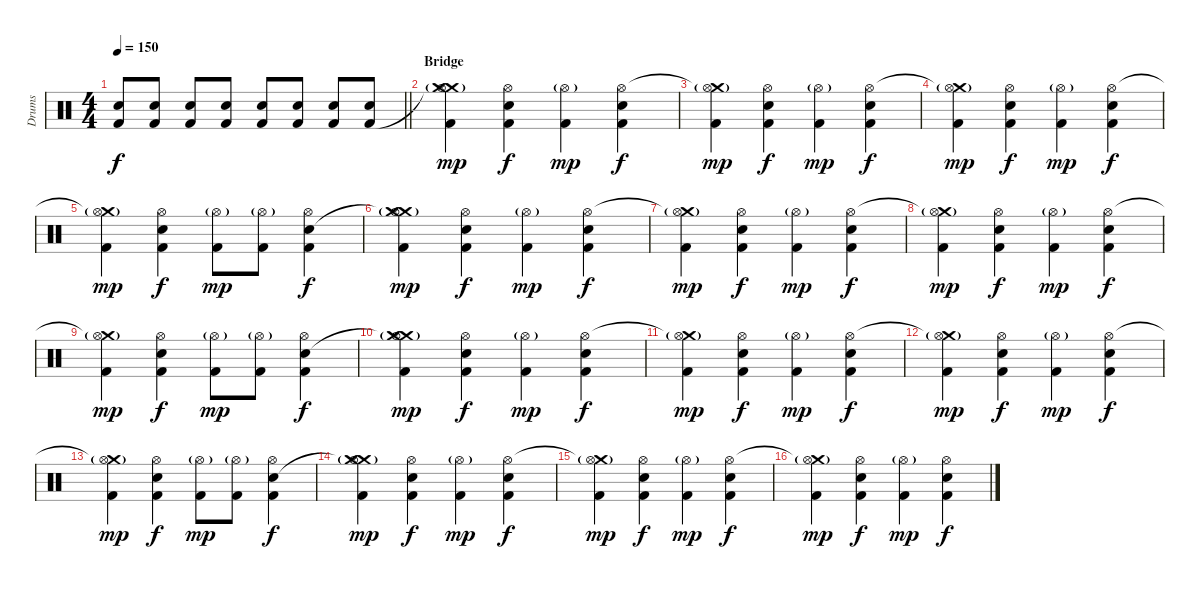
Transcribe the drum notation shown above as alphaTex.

\track ("Drums" "Drums") {instrument percussion}
\staff {score}
\articulation defaults
\ts (4 4)
\tempo 150
\clef neutral
\barLineRight lightlight
\ks c
("Electric Snare (hit)" "Kick (hit) 2").8{dy f} ("Electric Snare (hit)" "Kick (hit) 2").8 ("Electric Snare (hit)" "Kick (hit) 2").8 ("Electric Snare (hit)" "Kick (hit) 2").8 ("Electric Snare (hit)" "Kick (hit) 2").8 ("Electric Snare (hit)" "Kick (hit) 2").8 ("Electric Snare (hit)" "Kick (hit) 2").8 ("Electric Snare (hit)" "Kick (hit) 2").8 |
\section ("" "Bridge")
("Crash medium (hit)" "Crash medium (hit)"{t} "Hi-Hat (open)"{g} "Kick (hit) 2").4{dy mp} ("Hi-Hat (open)" "Electric Snare (hit)" "Kick (hit) 2").4{dy f} ("Hi-Hat (open)"{g} "Kick (hit) 2").4{dy mp} ("Hi-Hat (open)" "Electric Snare (hit)" "Kick (hit) 2").4{dy f} |
("Crash medium (hit)"{t} "Hi-Hat (open)"{g} "Kick (hit) 2").4{dy mp} ("Hi-Hat (open)" "Electric Snare (hit)" "Kick (hit) 2").4{dy f} ("Hi-Hat (open)"{g} "Kick (hit) 2").4{dy mp} ("Hi-Hat (open)" "Electric Snare (hit)" "Kick (hit) 2").4{dy f} |
("Crash medium (hit)"{t} "Hi-Hat (open)"{g} "Kick (hit) 2").4{dy mp} ("Hi-Hat (open)" "Electric Snare (hit)" "Kick (hit) 2").4{dy f} ("Hi-Hat (open)"{g} "Kick (hit) 2").4{dy mp} ("Hi-Hat (open)" "Electric Snare (hit)" "Kick (hit) 2").4{dy f} |
("Crash medium (hit)"{t} "Hi-Hat (open)"{g} "Kick (hit) 2").4{dy mp} ("Hi-Hat (open)" "Electric Snare (hit)" "Kick (hit) 2").4{dy f} ("Hi-Hat (open)"{g} "Kick (hit) 2").8{dy mp} ("Hi-Hat (open)"{g} "Kick (hit) 2").8 ("Hi-Hat (open)" "Electric Snare (hit)" "Kick (hit) 2").4{dy f} |
("Crash medium (hit)" "Crash medium (hit)"{t} "Hi-Hat (open)"{g} "Kick (hit) 2").4{dy mp} ("Hi-Hat (open)" "Electric Snare (hit)" "Kick (hit) 2").4{dy f} ("Hi-Hat (open)"{g} "Kick (hit) 2").4{dy mp} ("Hi-Hat (open)" "Electric Snare (hit)" "Kick (hit) 2").4{dy f} |
("Crash medium (hit)"{t} "Hi-Hat (open)"{g} "Kick (hit) 2").4{dy mp} ("Hi-Hat (open)" "Electric Snare (hit)" "Kick (hit) 2").4{dy f} ("Hi-Hat (open)"{g} "Kick (hit) 2").4{dy mp} ("Hi-Hat (open)" "Electric Snare (hit)" "Kick (hit) 2").4{dy f} |
("Crash medium (hit)"{t} "Hi-Hat (open)"{g} "Kick (hit) 2").4{dy mp} ("Hi-Hat (open)" "Electric Snare (hit)" "Kick (hit) 2").4{dy f} ("Hi-Hat (open)"{g} "Kick (hit) 2").4{dy mp} ("Hi-Hat (open)" "Electric Snare (hit)" "Kick (hit) 2").4{dy f} |
("Crash medium (hit)"{t} "Hi-Hat (open)"{g} "Kick (hit) 2").4{dy mp} ("Hi-Hat (open)" "Electric Snare (hit)" "Kick (hit) 2").4{dy f} ("Hi-Hat (open)"{g} "Kick (hit) 2").8{dy mp} ("Hi-Hat (open)"{g} "Kick (hit) 2").8 ("Hi-Hat (open)" "Electric Snare (hit)" "Kick (hit) 2").4{dy f} |
("Crash medium (hit)" "Crash medium (hit)"{t} "Hi-Hat (open)"{g} "Kick (hit) 2").4{dy mp} ("Hi-Hat (open)" "Electric Snare (hit)" "Kick (hit) 2").4{dy f} ("Hi-Hat (open)"{g} "Kick (hit) 2").4{dy mp} ("Hi-Hat (open)" "Electric Snare (hit)" "Kick (hit) 2").4{dy f} |
("Crash medium (hit)"{t} "Hi-Hat (open)"{g} "Kick (hit) 2").4{dy mp} ("Hi-Hat (open)" "Electric Snare (hit)" "Kick (hit) 2").4{dy f} ("Hi-Hat (open)"{g} "Kick (hit) 2").4{dy mp} ("Hi-Hat (open)" "Electric Snare (hit)" "Kick (hit) 2").4{dy f} |
("Crash medium (hit)"{t} "Hi-Hat (open)"{g} "Kick (hit) 2").4{dy mp} ("Hi-Hat (open)" "Electric Snare (hit)" "Kick (hit) 2").4{dy f} ("Hi-Hat (open)"{g} "Kick (hit) 2").4{dy mp} ("Hi-Hat (open)" "Electric Snare (hit)" "Kick (hit) 2").4{dy f} |
("Crash medium (hit)"{t} "Hi-Hat (open)"{g} "Kick (hit) 2").4{dy mp} ("Hi-Hat (open)" "Electric Snare (hit)" "Kick (hit) 2").4{dy f} ("Hi-Hat (open)"{g} "Kick (hit) 2").8{dy mp} ("Hi-Hat (open)"{g} "Kick (hit) 2").8 ("Hi-Hat (open)" "Electric Snare (hit)" "Kick (hit) 2").4{dy f} |
("Crash medium (hit)" "Crash medium (hit)"{t} "Hi-Hat (open)"{g} "Kick (hit) 2").4{dy mp} ("Hi-Hat (open)" "Electric Snare (hit)" "Kick (hit) 2").4{dy f} ("Hi-Hat (open)"{g} "Kick (hit) 2").4{dy mp} ("Hi-Hat (open)" "Electric Snare (hit)" "Kick (hit) 2").4{dy f} |
("Crash medium (hit)"{t} "Hi-Hat (open)"{g} "Kick (hit) 2").4{dy mp} ("Hi-Hat (open)" "Electric Snare (hit)" "Kick (hit) 2").4{dy f} ("Hi-Hat (open)"{g} "Kick (hit) 2").4{dy mp} ("Hi-Hat (open)" "Electric Snare (hit)" "Kick (hit) 2").4{dy f} |
("Crash medium (hit)"{t} "Hi-Hat (open)"{g} "Kick (hit) 2").4{dy mp} ("Hi-Hat (open)" "Electric Snare (hit)" "Kick (hit) 2").4{dy f} ("Hi-Hat (open)"{g} "Kick (hit) 2").4{dy mp} ("Hi-Hat (open)" "Electric Snare (hit)" "Kick (hit) 2").4{dy f}
